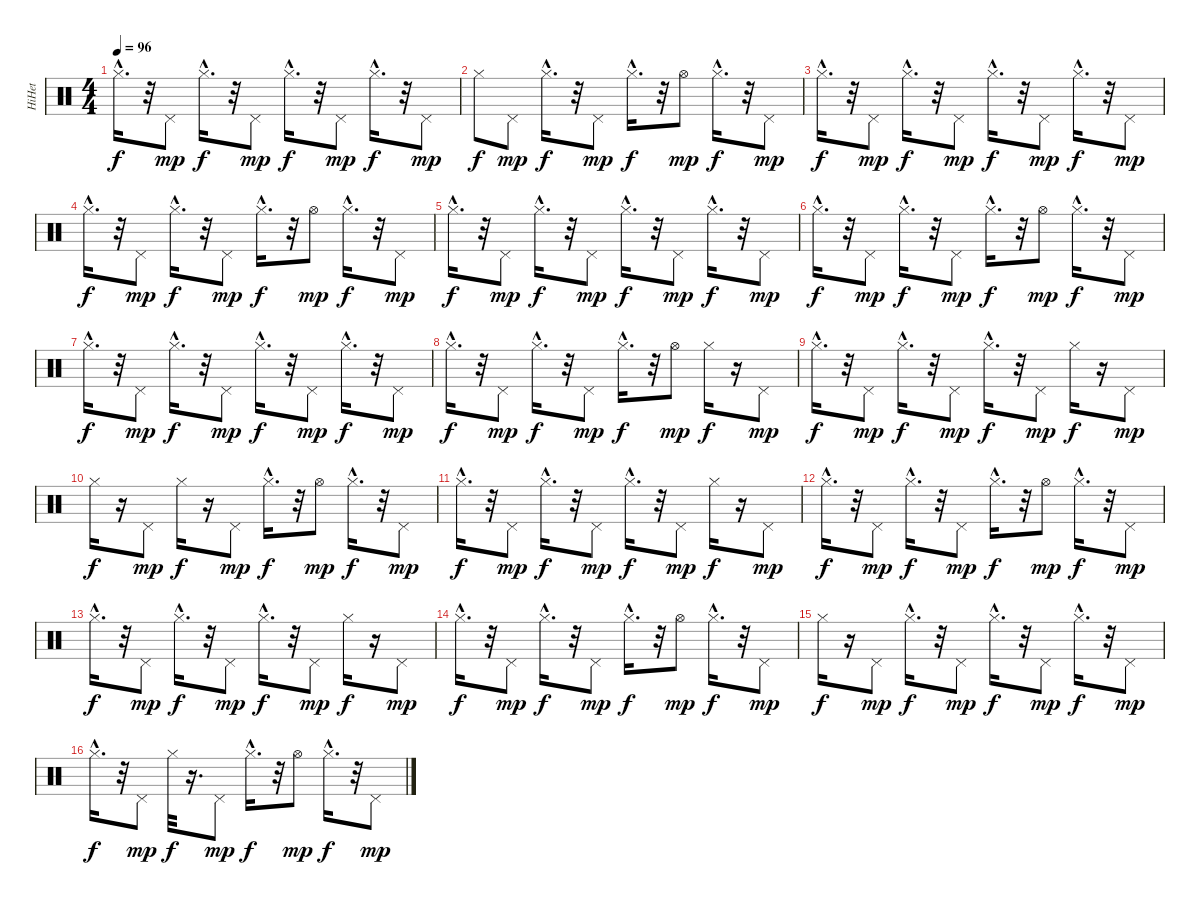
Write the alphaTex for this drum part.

\track ("HiHet" "HiHet") {instrument percussion}
\staff {score}
\articulation defaults
\ts (4 4)
\tempo 96
\clef neutral
\ks c "Hi-Hat (closed)"{hac}.16{d dy f}
r.32 "Pedal Hi-Hat (hit)".8{dy mp} "Hi-Hat (closed)"{hac}.16{d dy f} r.32 "Pedal Hi-Hat (hit)".8{dy mp} "Hi-Hat (closed)"{hac}.16{d dy f} r.32 "Pedal Hi-Hat (hit)".8{dy mp} "Hi-Hat (closed)"{hac}.16{d dy f} r.32 "Pedal Hi-Hat (hit)".8{dy mp} |
"Hi-Hat (closed)".8{dy f} "Pedal Hi-Hat (hit)".8{dy mp} "Hi-Hat (closed)"{hac}.16{d dy f} r.32 "Pedal Hi-Hat (hit)".8{dy mp} "Hi-Hat (closed)"{hac}.16{d dy f} r.32 "Hi-Hat (open)".8{dy mp} "Hi-Hat (closed)"{hac}.16{d dy f} r.32 "Pedal Hi-Hat (hit)".8{dy mp} |
"Hi-Hat (closed)"{hac}.16{d dy f} r.32 "Pedal Hi-Hat (hit)".8{dy mp} "Hi-Hat (closed)"{hac}.16{d dy f} r.32 "Pedal Hi-Hat (hit)".8{dy mp} "Hi-Hat (closed)"{hac}.16{d dy f} r.32 "Pedal Hi-Hat (hit)".8{dy mp} "Hi-Hat (closed)"{hac}.16{d dy f} r.32 "Pedal Hi-Hat (hit)".8{dy mp} |
"Hi-Hat (closed)"{hac}.16{d dy f} r.32 "Pedal Hi-Hat (hit)".8{dy mp} "Hi-Hat (closed)"{hac}.16{d dy f} r.32 "Pedal Hi-Hat (hit)".8{dy mp} "Hi-Hat (closed)"{hac}.16{d dy f} r.32 "Hi-Hat (open)".8{dy mp} "Hi-Hat (closed)"{hac}.16{d dy f} r.32 "Pedal Hi-Hat (hit)".8{dy mp} |
"Hi-Hat (closed)"{hac}.16{d dy f} r.32 "Pedal Hi-Hat (hit)".8{dy mp} "Hi-Hat (closed)"{hac}.16{d dy f} r.32 "Pedal Hi-Hat (hit)".8{dy mp} "Hi-Hat (closed)"{hac}.16{d dy f} r.32 "Pedal Hi-Hat (hit)".8{dy mp} "Hi-Hat (closed)"{hac}.16{d dy f} r.32 "Pedal Hi-Hat (hit)".8{dy mp} |
"Hi-Hat (closed)"{hac}.16{d dy f} r.32 "Pedal Hi-Hat (hit)".8{dy mp} "Hi-Hat (closed)"{hac}.16{d dy f} r.32 "Pedal Hi-Hat (hit)".8{dy mp} "Hi-Hat (closed)"{hac}.16{d dy f} r.32 "Hi-Hat (open)".8{dy mp} "Hi-Hat (closed)"{hac}.16{d dy f} r.32 "Pedal Hi-Hat (hit)".8{dy mp} |
"Hi-Hat (closed)"{hac}.16{d dy f} r.32 "Pedal Hi-Hat (hit)".8{dy mp} "Hi-Hat (closed)"{hac}.16{d dy f} r.32 "Pedal Hi-Hat (hit)".8{dy mp} "Hi-Hat (closed)"{hac}.16{d dy f} r.32 "Pedal Hi-Hat (hit)".8{dy mp} "Hi-Hat (closed)"{hac}.16{d dy f} r.32 "Pedal Hi-Hat (hit)".8{dy mp} |
"Hi-Hat (closed)"{hac}.16{d dy f} r.32 "Pedal Hi-Hat (hit)".8{dy mp} "Hi-Hat (closed)"{hac}.16{d dy f} r.32 "Pedal Hi-Hat (hit)".8{dy mp} "Hi-Hat (closed)"{hac}.16{d dy f} r.32 "Hi-Hat (open)".8{dy mp} "Hi-Hat (closed)".16{dy f} r.16 "Pedal Hi-Hat (hit)".8{dy mp} |
"Hi-Hat (closed)"{hac}.16{d dy f} r.32 "Pedal Hi-Hat (hit)".8{dy mp} "Hi-Hat (closed)"{hac}.16{d dy f} r.32 "Pedal Hi-Hat (hit)".8{dy mp} "Hi-Hat (closed)"{hac}.16{d dy f} r.32 "Pedal Hi-Hat (hit)".8{dy mp} "Hi-Hat (closed)".16{dy f} r.16 "Pedal Hi-Hat (hit)".8{dy mp} |
"Hi-Hat (closed)".16{dy f} r.16 "Pedal Hi-Hat (hit)".8{dy mp} "Hi-Hat (closed)".16{dy f} r.16 "Pedal Hi-Hat (hit)".8{dy mp} "Hi-Hat (closed)"{hac}.16{d dy f} r.32 "Hi-Hat (open)".8{dy mp} "Hi-Hat (closed)"{hac}.16{d dy f} r.32 "Pedal Hi-Hat (hit)".8{dy mp} |
"Hi-Hat (closed)"{hac}.16{d dy f} r.32 "Pedal Hi-Hat (hit)".8{dy mp} "Hi-Hat (closed)"{hac}.16{d dy f} r.32 "Pedal Hi-Hat (hit)".8{dy mp} "Hi-Hat (closed)"{hac}.16{d dy f} r.32 "Pedal Hi-Hat (hit)".8{dy mp} "Hi-Hat (closed)".16{dy f} r.16 "Pedal Hi-Hat (hit)".8{dy mp} |
"Hi-Hat (closed)"{hac}.16{d dy f} r.32 "Pedal Hi-Hat (hit)".8{dy mp} "Hi-Hat (closed)"{hac}.16{d dy f} r.32 "Pedal Hi-Hat (hit)".8{dy mp} "Hi-Hat (closed)"{hac}.16{d dy f} r.32 "Hi-Hat (open)".8{dy mp} "Hi-Hat (closed)"{hac}.16{d dy f} r.32 "Pedal Hi-Hat (hit)".8{dy mp} |
"Hi-Hat (closed)"{hac}.16{d dy f} r.32 "Pedal Hi-Hat (hit)".8{dy mp} "Hi-Hat (closed)"{hac}.16{d dy f} r.32 "Pedal Hi-Hat (hit)".8{dy mp} "Hi-Hat (closed)"{hac}.16{d dy f} r.32 "Pedal Hi-Hat (hit)".8{dy mp} "Hi-Hat (closed)".16{dy f} r.16 "Pedal Hi-Hat (hit)".8{dy mp} |
"Hi-Hat (closed)"{hac}.16{d dy f} r.32 "Pedal Hi-Hat (hit)".8{dy mp} "Hi-Hat (closed)"{hac}.16{d dy f} r.32 "Pedal Hi-Hat (hit)".8{dy mp} "Hi-Hat (closed)"{hac}.16{d dy f} r.32 "Hi-Hat (open)".8{dy mp} "Hi-Hat (closed)"{hac}.16{d dy f} r.32 "Pedal Hi-Hat (hit)".8{dy mp} |
"Hi-Hat (closed)".16{dy f} r.16 "Pedal Hi-Hat (hit)".8{dy mp} "Hi-Hat (closed)"{hac}.16{d dy f} r.32 "Pedal Hi-Hat (hit)".8{dy mp} "Hi-Hat (closed)"{hac}.16{d dy f} r.32 "Pedal Hi-Hat (hit)".8{dy mp} "Hi-Hat (closed)"{hac}.16{d dy f} r.32 "Pedal Hi-Hat (hit)".8{dy mp} |
"Hi-Hat (closed)"{hac}.16{d dy f} r.32 "Pedal Hi-Hat (hit)".8{dy mp} "Hi-Hat (closed)".32{dy f} r.16{d} "Pedal Hi-Hat (hit)".8{dy mp} "Hi-Hat (closed)"{hac}.16{d dy f} r.32 "Hi-Hat (open)".8{dy mp} "Hi-Hat (closed)"{hac}.16{d dy f} r.32 "Pedal Hi-Hat (hit)".8{dy mp}
